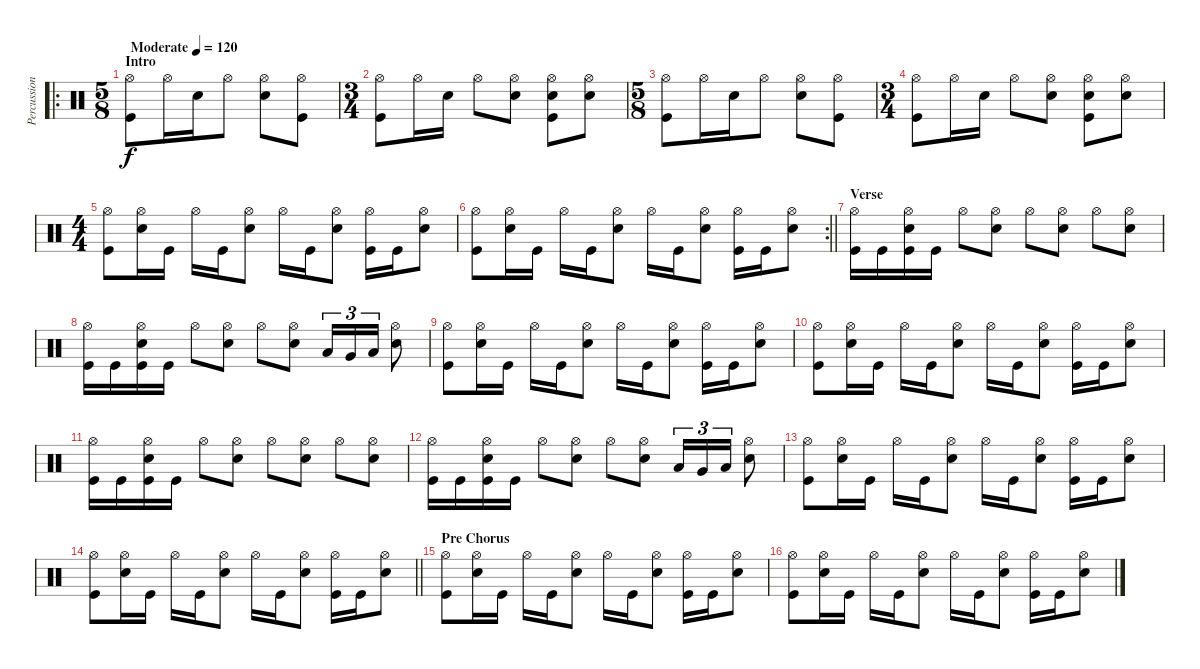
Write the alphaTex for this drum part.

\track ("Percussion" "Percussion") {instrument percussion}
\staff {score}
\articulation defaults
\ro
\ts (5 8)
\section ("" "Intro")
\tempo (120 "Moderate")
\clef neutral
\ks c
("Hi-Hat (open)" "Kick (hit)").8{dy f} "Hi-Hat (open)".16 "Snare (hit) 2".16 "Hi-Hat (open)".8 ("Hi-Hat (open)" "Snare (hit) 2").8 ("Hi-Hat (open)" "Kick (hit)").8 |
\ts (3 4)
("Hi-Hat (open)" "Kick (hit)").8 "Hi-Hat (open)".16 "Snare (hit) 2".16 "Hi-Hat (open)".8 ("Hi-Hat (open)" "Snare (hit) 2").8 ("Hi-Hat (open)" "Snare (hit) 2" "Kick (hit)").8 ("Hi-Hat (open)" "Snare (hit) 2").8 |
\ts (5 8)
("Hi-Hat (open)" "Kick (hit)").8 "Hi-Hat (open)".16 "Snare (hit) 2".16 "Hi-Hat (open)".8 ("Hi-Hat (open)" "Snare (hit) 2").8 ("Hi-Hat (open)" "Kick (hit)").8 |
\ts (3 4)
("Hi-Hat (open)" "Kick (hit)").8 "Hi-Hat (open)".16 "Snare (hit) 2".16 "Hi-Hat (open)".8 ("Hi-Hat (open)" "Snare (hit) 2").8 ("Hi-Hat (open)" "Snare (hit) 2" "Kick (hit)").8 ("Hi-Hat (open)" "Snare (hit) 2").8 |
\ts (4 4)
("Hi-Hat (open)" "Kick (hit)").8 ("Hi-Hat (open)" "Snare (hit) 2").16 "Kick (hit)".16 "Hi-Hat (open)".16 "Kick (hit)".16 ("Hi-Hat (open)" "Snare (hit) 2").8 "Hi-Hat (open)".16 "Kick (hit)".16 ("Hi-Hat (open)" "Snare (hit) 2").8 ("Hi-Hat (open)" "Kick (hit)").16 "Kick (hit)".16 ("Hi-Hat (open)" "Snare (hit) 2").8 |
\rc 2
\barLineRight lightlight
("Hi-Hat (open)" "Kick (hit)").8 ("Hi-Hat (open)" "Snare (hit) 2").16 "Kick (hit)".16 "Hi-Hat (open)".16 "Kick (hit)".16 ("Hi-Hat (open)" "Snare (hit) 2").8 "Hi-Hat (open)".16 "Kick (hit)".16 ("Hi-Hat (open)" "Snare (hit) 2").8 ("Hi-Hat (open)" "Kick (hit)").16 "Kick (hit)".16 ("Hi-Hat (open)" "Snare (hit) 2").8 |
\section ("" "Verse")
("Hi-Hat (open)" "Kick (hit)").16 "Kick (hit)".16 ("Hi-Hat (open)" "Snare (hit) 2" "Kick (hit)").16 "Kick (hit)".16 "Hi-Hat (open)".8 ("Hi-Hat (open)" "Snare (hit) 2").8 "Hi-Hat (open)".8 ("Hi-Hat (open)" "Snare (hit) 2").8 "Hi-Hat (open)".8 ("Hi-Hat (open)" "Snare (hit) 2").8 |
("Hi-Hat (open)" "Kick (hit)").16 "Kick (hit)".16 ("Hi-Hat (open)" "Snare (hit) 2" "Kick (hit)").16 "Kick (hit)".16 "Hi-Hat (open)".8 ("Hi-Hat (open)" "Snare (hit) 2").8 "Hi-Hat (open)".8 ("Hi-Hat (open)" "Snare (hit) 2").8 "Low Tom (hit)".16{tu (3 2)} "Very Low Tom (hit)".16{tu (3 2)} "Low Floor Tom (hit)".16{tu (3 2)} ("Hi-Hat (open)" "Snare (hit) 2").8 |
("Hi-Hat (open)" "Kick (hit)").8 ("Hi-Hat (open)" "Snare (hit) 2").16 "Kick (hit)".16 "Hi-Hat (open)".16 "Kick (hit)".16 ("Hi-Hat (open)" "Snare (hit) 2").8 "Hi-Hat (open)".16 "Kick (hit)".16 ("Hi-Hat (open)" "Snare (hit) 2").8 ("Hi-Hat (open)" "Kick (hit)").16 "Kick (hit)".16 ("Hi-Hat (open)" "Snare (hit) 2").8 |
("Hi-Hat (open)" "Kick (hit)").8 ("Hi-Hat (open)" "Snare (hit) 2").16 "Kick (hit)".16 "Hi-Hat (open)".16 "Kick (hit)".16 ("Hi-Hat (open)" "Snare (hit) 2").8 "Hi-Hat (open)".16 "Kick (hit)".16 ("Hi-Hat (open)" "Snare (hit) 2").8 ("Hi-Hat (open)" "Kick (hit)").16 "Kick (hit)".16 ("Hi-Hat (open)" "Snare (hit) 2").8 |
("Hi-Hat (open)" "Kick (hit)").16 "Kick (hit)".16 ("Hi-Hat (open)" "Snare (hit) 2" "Kick (hit)").16 "Kick (hit)".16 "Hi-Hat (open)".8 ("Hi-Hat (open)" "Snare (hit) 2").8 "Hi-Hat (open)".8 ("Hi-Hat (open)" "Snare (hit) 2").8 "Hi-Hat (open)".8 ("Hi-Hat (open)" "Snare (hit) 2").8 |
("Hi-Hat (open)" "Kick (hit)").16 "Kick (hit)".16 ("Hi-Hat (open)" "Snare (hit) 2" "Kick (hit)").16 "Kick (hit)".16 "Hi-Hat (open)".8 ("Hi-Hat (open)" "Snare (hit) 2").8 "Hi-Hat (open)".8 ("Hi-Hat (open)" "Snare (hit) 2").8 "Low Tom (hit)".16{tu (3 2)} "Very Low Tom (hit)".16{tu (3 2)} "Low Floor Tom (hit)".16{tu (3 2)} ("Hi-Hat (open)" "Snare (hit) 2").8 |
("Hi-Hat (open)" "Kick (hit)").8 ("Hi-Hat (open)" "Snare (hit) 2").16 "Kick (hit)".16 "Hi-Hat (open)".16 "Kick (hit)".16 ("Hi-Hat (open)" "Snare (hit) 2").8 "Hi-Hat (open)".16 "Kick (hit)".16 ("Hi-Hat (open)" "Snare (hit) 2").8 ("Hi-Hat (open)" "Kick (hit)").16 "Kick (hit)".16 ("Hi-Hat (open)" "Snare (hit) 2").8 |
\barLineRight lightlight
("Hi-Hat (open)" "Kick (hit)").8 ("Hi-Hat (open)" "Snare (hit) 2").16 "Kick (hit)".16 "Hi-Hat (open)".16 "Kick (hit)".16 ("Hi-Hat (open)" "Snare (hit) 2").8 "Hi-Hat (open)".16 "Kick (hit)".16 ("Hi-Hat (open)" "Snare (hit) 2").8 ("Hi-Hat (open)" "Kick (hit)").16 "Kick (hit)".16 ("Hi-Hat (open)" "Snare (hit) 2").8 |
\section ("" "Pre Chorus")
("Hi-Hat (open)" "Kick (hit)").8 ("Hi-Hat (open)" "Snare (hit) 2").16 "Kick (hit)".16 "Hi-Hat (open)".16 "Kick (hit)".16 ("Hi-Hat (open)" "Snare (hit) 2").8 "Hi-Hat (open)".16 "Kick (hit)".16 ("Hi-Hat (open)" "Snare (hit) 2").8 ("Hi-Hat (open)" "Kick (hit)").16 "Kick (hit)".16 ("Hi-Hat (open)" "Snare (hit) 2").8 |
("Hi-Hat (open)" "Kick (hit)").8 ("Hi-Hat (open)" "Snare (hit) 2").16 "Kick (hit)".16 "Hi-Hat (open)".16 "Kick (hit)".16 ("Hi-Hat (open)" "Snare (hit) 2").8 "Hi-Hat (open)".16 "Kick (hit)".16 ("Hi-Hat (open)" "Snare (hit) 2").8 ("Hi-Hat (open)" "Kick (hit)").16 "Kick (hit)".16 ("Hi-Hat (open)" "Snare (hit) 2").8
